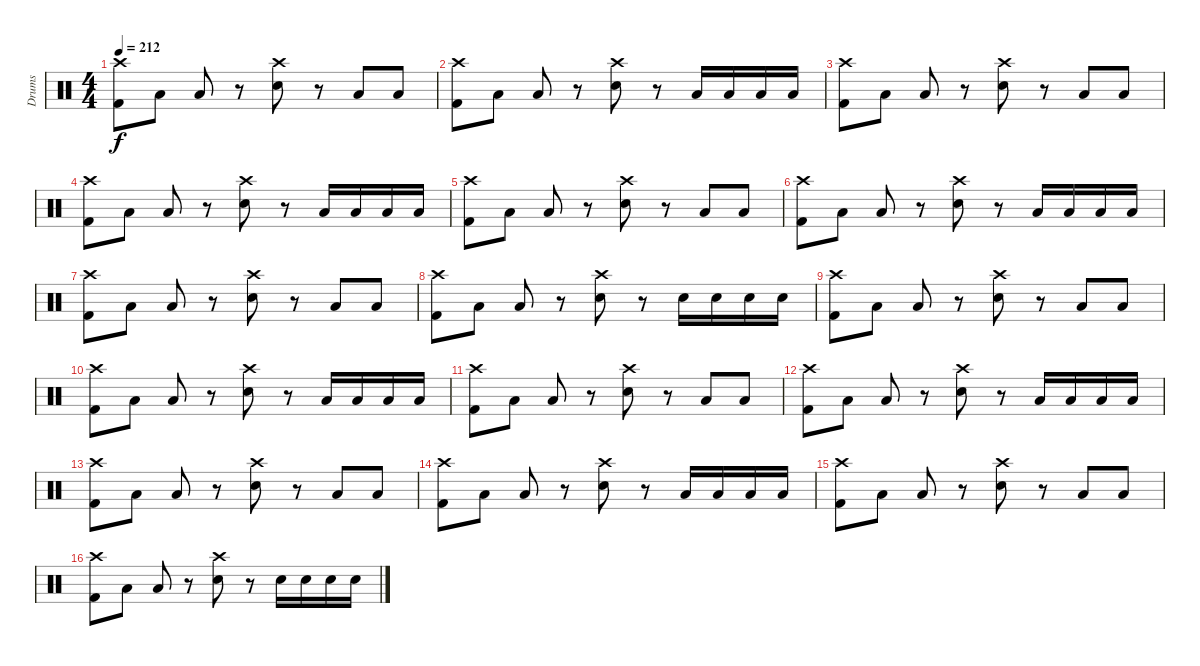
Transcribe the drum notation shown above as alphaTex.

\track ("Drums" "Drums") {instrument percussion}
\staff {score}
\articulation defaults
\ts (4 4)
\tempo 212
\clef neutral
\ks c
("Crash high (hit)" "Kick (hit) 2").8{dy f} "Low Floor Tom (hit)".8 "Low Floor Tom (hit)".8 r.8 ("Crash high (hit)" "Snare (hit) 2").8 r.8 "Low Floor Tom (hit)".8 "Low Floor Tom (hit)".8 |
("Crash high (hit)" "Kick (hit) 2").8 "Low Floor Tom (hit)".8 "Low Floor Tom (hit)".8 r.8 ("Crash high (hit)" "Snare (hit) 2").8 r.8 "Low Floor Tom (hit)".16 "Low Floor Tom (hit)".16 "Low Floor Tom (hit)".16 "Low Floor Tom (hit)".16 |
("Crash high (hit)" "Kick (hit) 2").8 "Low Floor Tom (hit)".8 "Low Floor Tom (hit)".8 r.8 ("Crash high (hit)" "Snare (hit) 2").8 r.8 "Low Floor Tom (hit)".8 "Low Floor Tom (hit)".8 |
("Crash high (hit)" "Kick (hit) 2").8 "Low Floor Tom (hit)".8 "Low Floor Tom (hit)".8 r.8 ("Crash high (hit)" "Snare (hit) 2").8 r.8 "Low Floor Tom (hit)".16 "Low Floor Tom (hit)".16 "Low Floor Tom (hit)".16 "Low Floor Tom (hit)".16 |
("Crash high (hit)" "Kick (hit) 2").8 "Low Floor Tom (hit)".8 "Low Floor Tom (hit)".8 r.8 ("Crash high (hit)" "Snare (hit) 2").8 r.8 "Low Floor Tom (hit)".8 "Low Floor Tom (hit)".8 |
("Crash high (hit)" "Kick (hit) 2").8 "Low Floor Tom (hit)".8 "Low Floor Tom (hit)".8 r.8 ("Crash high (hit)" "Snare (hit) 2").8 r.8 "Low Floor Tom (hit)".16 "Low Floor Tom (hit)".16 "Low Floor Tom (hit)".16 "Low Floor Tom (hit)".16 |
("Crash high (hit)" "Kick (hit) 2").8 "Low Floor Tom (hit)".8 "Low Floor Tom (hit)".8 r.8 ("Crash high (hit)" "Snare (hit) 2").8 r.8 "Low Floor Tom (hit)".8 "Low Floor Tom (hit)".8 |
("Crash high (hit)" "Kick (hit) 2").8 "Low Floor Tom (hit)".8 "Low Floor Tom (hit)".8 r.8 ("Crash high (hit)" "Snare (hit) 2").8 r.8 "Snare (hit) 2".16 "Snare (hit) 2".16 "Snare (hit) 2".16 "Snare (hit) 2".16 |
("Crash high (hit)" "Kick (hit) 2").8 "Low Floor Tom (hit)".8 "Low Floor Tom (hit)".8 r.8 ("Crash high (hit)" "Snare (hit) 2").8 r.8 "Low Floor Tom (hit)".8 "Low Floor Tom (hit)".8 |
("Crash high (hit)" "Kick (hit) 2").8 "Low Floor Tom (hit)".8 "Low Floor Tom (hit)".8 r.8 ("Crash high (hit)" "Snare (hit) 2").8 r.8 "Low Floor Tom (hit)".16 "Low Floor Tom (hit)".16 "Low Floor Tom (hit)".16 "Low Floor Tom (hit)".16 |
("Crash high (hit)" "Kick (hit) 2").8 "Low Floor Tom (hit)".8 "Low Floor Tom (hit)".8 r.8 ("Crash high (hit)" "Snare (hit) 2").8 r.8 "Low Floor Tom (hit)".8 "Low Floor Tom (hit)".8 |
("Crash high (hit)" "Kick (hit) 2").8 "Low Floor Tom (hit)".8 "Low Floor Tom (hit)".8 r.8 ("Crash high (hit)" "Snare (hit) 2").8 r.8 "Low Floor Tom (hit)".16 "Low Floor Tom (hit)".16 "Low Floor Tom (hit)".16 "Low Floor Tom (hit)".16 |
("Crash high (hit)" "Kick (hit) 2").8 "Low Floor Tom (hit)".8 "Low Floor Tom (hit)".8 r.8 ("Crash high (hit)" "Snare (hit) 2").8 r.8 "Low Floor Tom (hit)".8 "Low Floor Tom (hit)".8 |
("Crash high (hit)" "Kick (hit) 2").8 "Low Floor Tom (hit)".8 "Low Floor Tom (hit)".8 r.8 ("Crash high (hit)" "Snare (hit) 2").8 r.8 "Low Floor Tom (hit)".16 "Low Floor Tom (hit)".16 "Low Floor Tom (hit)".16 "Low Floor Tom (hit)".16 |
("Crash high (hit)" "Kick (hit) 2").8 "Low Floor Tom (hit)".8 "Low Floor Tom (hit)".8 r.8 ("Crash high (hit)" "Snare (hit) 2").8 r.8 "Low Floor Tom (hit)".8 "Low Floor Tom (hit)".8 |
("Crash high (hit)" "Kick (hit) 2").8 "Low Floor Tom (hit)".8 "Low Floor Tom (hit)".8 r.8 ("Crash high (hit)" "Snare (hit) 2").8 r.8 "Snare (hit) 2".16 "Snare (hit) 2".16 "Snare (hit) 2".16 "Snare (hit) 2".16
